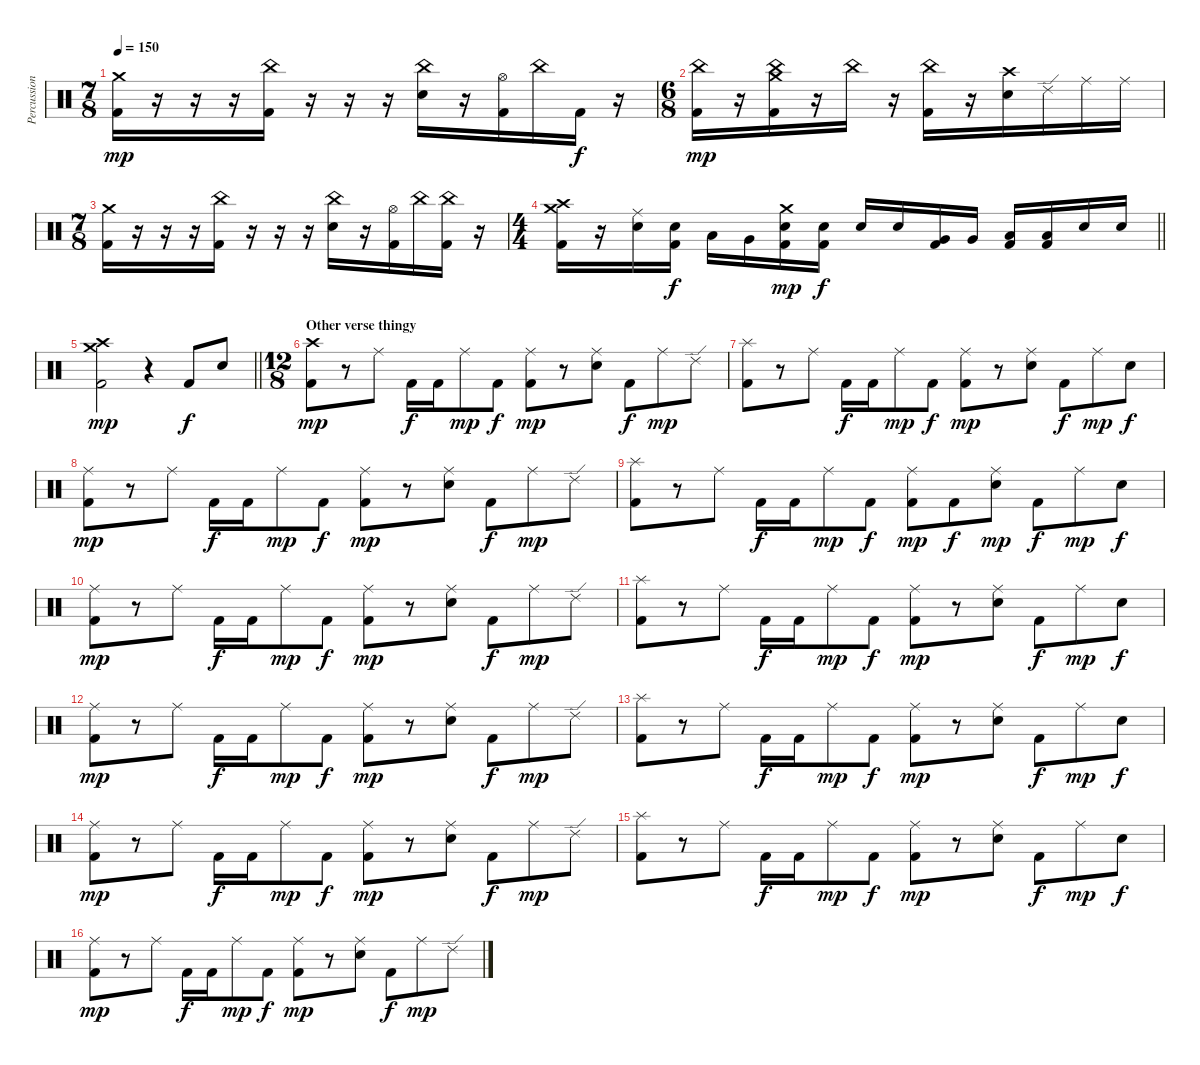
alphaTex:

\track ("Percussion" "Percussion") {instrument percussion}
\staff {score}
\articulation defaults
\ts (7 8)
\tempo 150
\clef neutral
\ks c
("Crash medium (hit)" "Kick (hit) 2").16{dy mp} r.16 r.16 r.16 ("China (hit)" "Kick (hit) 2").16 r.16 r.16 r.16 ("China (hit)" "Electric Snare (hit)").16 r.16 ("Hi-Hat (open)" "Kick (hit) 2").16 "China (hit)".16 "Kick (hit) 2".16{dy f} r.16 |
\ts (6 8)
("China (hit)" "Kick (hit) 2").16{dy mp} r.16 ("China (hit)" "Crash medium (hit)" "Kick (hit) 2").16 r.16 "China (hit)".16 r.16 ("China (hit)" "Kick (hit) 2").16 r.16 ("Crash high (hit)" "Electric Snare (hit)").16 "Ride (edge) 2".16 "Ride (middle)".16 "Ride (middle)".16 |
\ts (7 8)
("Crash medium (hit)" "Kick (hit) 2").16 r.16 r.16 r.16 ("China (hit)" "Kick (hit) 2").16 r.16 r.16 r.16 ("China (hit)" "Electric Snare (hit)").16 r.16 ("Hi-Hat (open)" "Kick (hit) 2").16 "China (hit)".16 ("China (hit)" "Kick (hit) 2").16 r.16 |
\ts (4 4)
\barLineRight lightlight
("Crash high (hit)" "Crash medium (hit)" "Kick (hit) 2").16 r.16 ("Ride (middle)" "Electric Snare (hit)").16 ("Electric Snare (hit)" "Kick (hit) 2").16{dy f} "Low Tom (hit)".16 "Very Low Tom (hit)".16 ("Crash medium (hit)" "Electric Snare (hit)" "Kick (hit) 2").16{dy mp} ("Electric Snare (hit)" "Kick (hit) 2").16{dy f} "Electric Snare (hit)".16 "Electric Snare (hit)".16 ("Very Low Tom (hit)" "Kick (hit) 2").16 "Very Low Tom (hit)".16 ("Low Floor Tom (hit)" "Kick (hit) 2").16 ("Low Floor Tom (hit)" "Kick (hit) 2").16 "Electric Snare (hit)".16 "Electric Snare (hit)".16 |
\barLineRight lightlight
("Crash medium (hit)" "Crash high (hit)" "Kick (hit) 2").2{dy mp} r.4 "Kick (hit) 2".8{dy f} "Electric Snare (hit)".8 |
\ts (12 8)
\section ("" "Other verse thingy")
("Crash high (hit)" "Kick (hit) 2").8{dy mp} r.8 "Ride (middle)".8 "Kick (hit) 2".16{dy f} "Kick (hit) 2".16 "Ride (middle)".8{dy mp} "Kick (hit) 2".8{dy f} ("Ride (middle)" "Kick (hit) 2").8{dy mp} r.8 ("Ride (middle)" "Electric Snare (hit)").8 "Kick (hit) 2".8{dy f} "Ride (middle)".8{dy mp} "Ride (edge) 2".8 |
("Splash (hit)" "Kick (hit) 2").8 r.8 "Ride (middle)".8 "Kick (hit) 2".16{dy f} "Kick (hit) 2".16 "Ride (middle)".8{dy mp} "Kick (hit) 2".8{dy f} ("Ride (middle)" "Kick (hit) 2").8{dy mp} r.8 ("Ride (middle)" "Electric Snare (hit)").8 "Kick (hit) 2".8{dy f} "Ride (middle)".8{dy mp} "Electric Snare (hit)".8{dy f} |
("Ride (middle)" "Kick (hit) 2").8{dy mp} r.8 "Ride (middle)".8 "Kick (hit) 2".16{dy f} "Kick (hit) 2".16 "Ride (middle)".8{dy mp} "Kick (hit) 2".8{dy f} ("Ride (middle)" "Kick (hit) 2").8{dy mp} r.8 ("Ride (middle)" "Electric Snare (hit)").8 "Kick (hit) 2".8{dy f} "Ride (middle)".8{dy mp} "Ride (edge) 2".8 |
("Splash (hit)" "Kick (hit) 2").8 r.8 "Ride (middle)".8 "Kick (hit) 2".16{dy f} "Kick (hit) 2".16 "Ride (middle)".8{dy mp} "Kick (hit) 2".8{dy f} ("Ride (middle)" "Kick (hit) 2").8{dy mp} "Kick (hit) 2".8{dy f} ("Ride (middle)" "Electric Snare (hit)").8{dy mp} "Kick (hit) 2".8{dy f} "Ride (middle)".8{dy mp} "Electric Snare (hit)".8{dy f} |
("Ride (middle)" "Kick (hit) 2").8{dy mp} r.8 "Ride (middle)".8 "Kick (hit) 2".16{dy f} "Kick (hit) 2".16 "Ride (middle)".8{dy mp} "Kick (hit) 2".8{dy f} ("Ride (middle)" "Kick (hit) 2").8{dy mp} r.8 ("Ride (middle)" "Electric Snare (hit)").8 "Kick (hit) 2".8{dy f} "Ride (middle)".8{dy mp} "Ride (edge) 2".8 |
("Splash (hit)" "Kick (hit) 2").8 r.8 "Ride (middle)".8 "Kick (hit) 2".16{dy f} "Kick (hit) 2".16 "Ride (middle)".8{dy mp} "Kick (hit) 2".8{dy f} ("Ride (middle)" "Kick (hit) 2").8{dy mp} r.8 ("Ride (middle)" "Electric Snare (hit)").8 "Kick (hit) 2".8{dy f} "Ride (middle)".8{dy mp} "Electric Snare (hit)".8{dy f} |
("Ride (middle)" "Kick (hit) 2").8{dy mp} r.8 "Ride (middle)".8 "Kick (hit) 2".16{dy f} "Kick (hit) 2".16 "Ride (middle)".8{dy mp} "Kick (hit) 2".8{dy f} ("Ride (middle)" "Kick (hit) 2").8{dy mp} r.8 ("Ride (middle)" "Electric Snare (hit)").8 "Kick (hit) 2".8{dy f} "Ride (middle)".8{dy mp} "Ride (edge) 2".8 |
("Splash (hit)" "Kick (hit) 2").8 r.8 "Ride (middle)".8 "Kick (hit) 2".16{dy f} "Kick (hit) 2".16 "Ride (middle)".8{dy mp} "Kick (hit) 2".8{dy f} ("Ride (middle)" "Kick (hit) 2").8{dy mp} r.8 ("Ride (middle)" "Electric Snare (hit)").8 "Kick (hit) 2".8{dy f} "Ride (middle)".8{dy mp} "Electric Snare (hit)".8{dy f} |
("Ride (middle)" "Kick (hit) 2").8{dy mp} r.8 "Ride (middle)".8 "Kick (hit) 2".16{dy f} "Kick (hit) 2".16 "Ride (middle)".8{dy mp} "Kick (hit) 2".8{dy f} ("Ride (middle)" "Kick (hit) 2").8{dy mp} r.8 ("Ride (middle)" "Electric Snare (hit)").8 "Kick (hit) 2".8{dy f} "Ride (middle)".8{dy mp} "Ride (edge) 2".8 |
("Splash (hit)" "Kick (hit) 2").8 r.8 "Ride (middle)".8 "Kick (hit) 2".16{dy f} "Kick (hit) 2".16 "Ride (middle)".8{dy mp} "Kick (hit) 2".8{dy f} ("Ride (middle)" "Kick (hit) 2").8{dy mp} r.8 ("Ride (middle)" "Electric Snare (hit)").8 "Kick (hit) 2".8{dy f} "Ride (middle)".8{dy mp} "Electric Snare (hit)".8{dy f} |
("Ride (middle)" "Kick (hit) 2").8{dy mp} r.8 "Ride (middle)".8 "Kick (hit) 2".16{dy f} "Kick (hit) 2".16 "Ride (middle)".8{dy mp} "Kick (hit) 2".8{dy f} ("Ride (middle)" "Kick (hit) 2").8{dy mp} r.8 ("Ride (middle)" "Electric Snare (hit)").8 "Kick (hit) 2".8{dy f} "Ride (middle)".8{dy mp} "Ride (edge) 2".8
